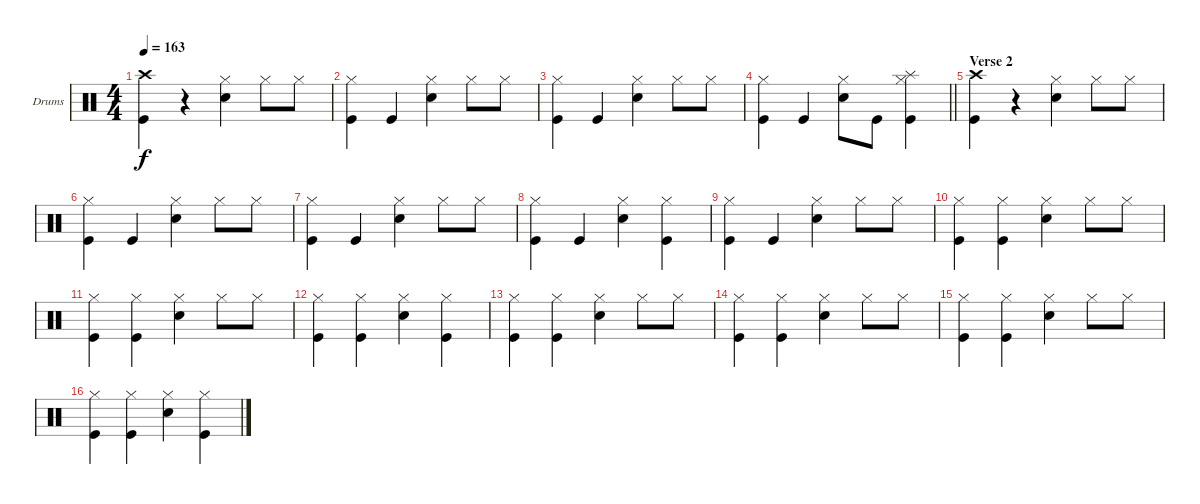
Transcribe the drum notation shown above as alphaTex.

\bracketExtendMode groupsimilarinstruments
\firstSystemTrackNameOrientation horizontal
\otherSystemsTrackNameOrientation horizontal
\track ("Drumkit" "Drums") {instrument percussion}
\staff {score}
\articulation defaults
\ts (4 4)
\tempo 163
\clef neutral
\scale
0.333333
\ks c
("Crash high (hit)" "Kick (hit)").4{dy f} r.4 ("Snare (hit) 2" "Hi-Hat (closed)").4 "Hi-Hat (closed)".8 "Hi-Hat (closed)".8 |
\scale
0.333333 ("Kick (hit)" "Hi-Hat (closed)").4 "Kick (hit)".4 ("Snare (hit) 2" "Hi-Hat (closed)").4 "Hi-Hat (closed)".8 "Hi-Hat (closed)".8 |
\scale
0.333333 ("Kick (hit)" "Hi-Hat (closed)").4 "Kick (hit)".4 ("Snare (hit) 2" "Hi-Hat (closed)").4 "Hi-Hat (closed)".8 "Hi-Hat (closed)".8 |
\scale
0.333333
\barLineRight lightlight
("Kick (hit)" "Hi-Hat (closed)").4 "Kick (hit)".4 ("Snare (hit) 2" "Hi-Hat (closed)").8 "Kick (hit)".8 ("Splash (hit)" "Kick (hit)" "Hi-Hat (closed)").4 |
\section ("" "Verse 2")
\scale
0.333333 ("Crash high (hit)" "Kick (hit)").4 r.4 ("Snare (hit) 2" "Hi-Hat (closed)").4 "Hi-Hat (closed)".8 "Hi-Hat (closed)".8 |
\scale
0.333333 ("Kick (hit)" "Hi-Hat (closed)").4 "Kick (hit)".4 ("Snare (hit) 2" "Hi-Hat (closed)").4 "Hi-Hat (closed)".8 "Hi-Hat (closed)".8 |
\scale
0.333333 ("Kick (hit)" "Hi-Hat (closed)").4 "Kick (hit)".4 ("Snare (hit) 2" "Hi-Hat (closed)").4 "Hi-Hat (closed)".8 "Hi-Hat (closed)".8 |
\scale
0.333333 ("Kick (hit)" "Hi-Hat (closed)").4 "Kick (hit)".4 ("Snare (hit) 2" "Hi-Hat (closed)").4 ("Kick (hit)" "Hi-Hat (closed)").4 |
\scale
0.333333 ("Kick (hit)" "Hi-Hat (closed)").4 "Kick (hit)".4 ("Snare (hit) 2" "Hi-Hat (closed)").4 "Hi-Hat (closed)".8 "Hi-Hat (closed)".8 |
\scale
0.333333 ("Kick (hit)" "Hi-Hat (closed)").4 ("Kick (hit)" "Hi-Hat (closed)").4 ("Snare (hit) 2" "Hi-Hat (closed)").4 "Hi-Hat (closed)".8 "Hi-Hat (closed)".8 |
\scale
0.333333 ("Kick (hit)" "Hi-Hat (closed)").4 ("Kick (hit)" "Hi-Hat (closed)").4 ("Snare (hit) 2" "Hi-Hat (closed)").4 "Hi-Hat (closed)".8 "Hi-Hat (closed)".8 |
\scale
0.333333 ("Kick (hit)" "Hi-Hat (closed)").4 ("Kick (hit)" "Hi-Hat (closed)").4 ("Snare (hit) 2" "Hi-Hat (closed)").4 ("Kick (hit)" "Hi-Hat (closed)").4 |
\scale
0.333333 ("Kick (hit)" "Hi-Hat (closed)").4 ("Kick (hit)" "Hi-Hat (closed)").4 ("Snare (hit) 2" "Hi-Hat (closed)").4 "Hi-Hat (closed)".8 "Hi-Hat (closed)".8 |
\scale
0.333333 ("Kick (hit)" "Hi-Hat (closed)").4 ("Kick (hit)" "Hi-Hat (closed)").4 ("Snare (hit) 2" "Hi-Hat (closed)").4 "Hi-Hat (closed)".8 "Hi-Hat (closed)".8 |
\scale
0.333333 ("Kick (hit)" "Hi-Hat (closed)").4 ("Kick (hit)" "Hi-Hat (closed)").4 ("Snare (hit) 2" "Hi-Hat (closed)").4 "Hi-Hat (closed)".8 "Hi-Hat (closed)".8 |
\scale
0.333333 ("Kick (hit)" "Hi-Hat (closed)").4 ("Kick (hit)" "Hi-Hat (closed)").4 ("Snare (hit) 2" "Hi-Hat (closed)").4 ("Kick (hit)" "Hi-Hat (closed)").4
